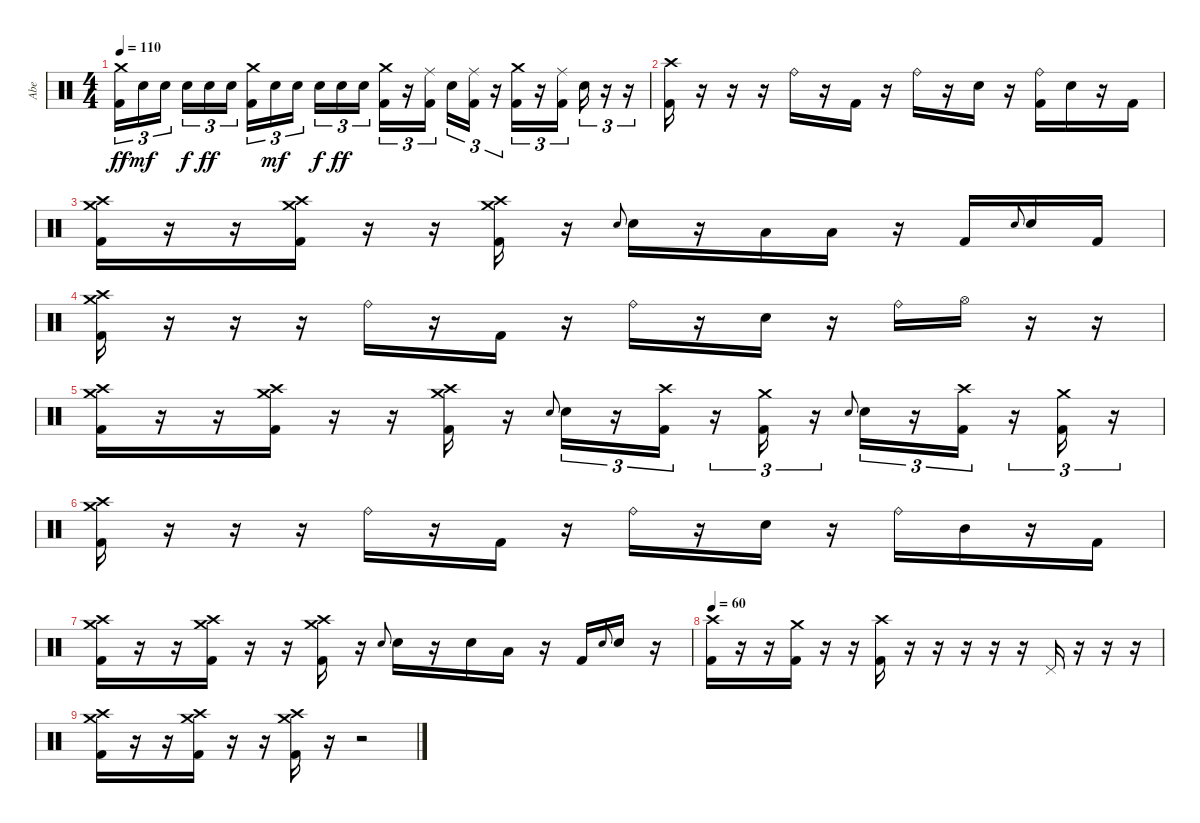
\track ("Abe" "Abe") {instrument percussion}
\staff {score}
\articulation defaults
\ts (4 4)
\tempo 110
\clef neutral
\ks c
("Crash medium (hit)" "Kick (hit) 2").16{tu (3 2) dy ff} "Electric Snare (hit)".16{tu (3 2) dy mf} "Electric Snare (hit)".16{tu (3 2) beam splitsecondary} "Electric Snare (hit)".16{tu (3 2) dy f} "Electric Snare (hit)".16{tu (3 2) dy ff} "Electric Snare (hit)".16{tu (3 2)} ("Crash medium (hit)" "Kick (hit) 2").16{tu (3 2)} "Electric Snare (hit)".16{tu (3 2) dy mf} "Electric Snare (hit)".16{tu (3 2) beam splitsecondary} "Electric Snare (hit)".16{tu (3 2) dy f} "Electric Snare (hit)".16{tu (3 2) dy ff} "Electric Snare (hit)".16{tu (3 2)} ("Crash medium (hit)" "Kick (hit) 2").16{tu (3 2)} r.16{tu (3 2)} ("Ride (middle)" "Kick (hit) 2").16{tu (3 2) beam splitsecondary} "Electric Snare (hit)".16{tu (3 2)} ("Ride (middle)" "Kick (hit) 2").16{tu (3 2)} r.16{tu (3 2)} ("Crash medium (hit)" "Kick (hit) 2").16{tu (3 2)} r.16{tu (3 2)} ("Ride (middle)" "Kick (hit) 2").16{tu (3 2)} "Electric Snare (hit)".16{tu (3 2)} r.16{tu (3 2)} r.16{tu (3 2)} |
("Crash high (hit)" "Kick (hit) 2").16 r.16 r.16 r.16 "Ride (bell)".16 r.16 "Kick (hit) 2".16 r.16 "Ride (bell)".16 r.16 "Electric Snare (hit)".16 r.16 ("Ride (bell)" "Kick (hit) 2").16 "Electric Snare (hit)".16 r.16 "Kick (hit) 2".16 |
("Crash medium (hit)" "Crash high (hit)" "Kick (hit) 2").16 r.16 r.16 ("Crash medium (hit)" "Crash high (hit)" "Kick (hit) 2").16 r.16 r.16 ("Crash medium (hit)" "Crash high (hit)" "Kick (hit) 2").16 r.16 "Electric Snare (hit)".8{gr onbeat} "Electric Snare (hit)".16 r.16 "Low Tom (hit)".16 "Low Tom (hit)".16 r.16 "Kick (hit) 2".16 "Electric Snare (hit)".8{gr onbeat} "Electric Snare (hit)".16 "Kick (hit) 2".16 |
("Crash medium (hit)" "Crash high (hit)" "Kick (hit) 2").16 r.16 r.16 r.16 "Ride (bell)".16 r.16 "Kick (hit) 2".16 r.16 "Ride (bell)".16 r.16 "Electric Snare (hit)".16 r.16 "Ride (bell)".16 "Hi-Hat (open)".16 r.16 r.16 |
("Crash medium (hit)" "Crash high (hit)" "Kick (hit) 2").16 r.16 r.16 ("Crash medium (hit)" "Crash high (hit)" "Kick (hit) 2").16 r.16 r.16 ("Crash medium (hit)" "Crash high (hit)" "Kick (hit) 2").16 r.16 "Electric Snare (hit)".8{gr onbeat} "Electric Snare (hit)".16{tu (3 2)} r.16{tu (3 2)} ("Crash high (hit)" "Kick (hit) 2").16{tu (3 2)} r.16{tu (3 2)} ("Crash medium (hit)" "Kick (hit) 2").16{tu (3 2)} r.16{tu (3 2)} "Electric Snare (hit)".8{gr onbeat} "Electric Snare (hit)".16{tu (3 2)} r.16{tu (3 2)} ("Crash high (hit)" "Kick (hit) 2").16{tu (3 2)} r.16{tu (3 2)} ("Crash medium (hit)" "Kick (hit) 2").16{tu (3 2)} r.16{tu (3 2)} |
("Crash medium (hit)" "Crash high (hit)" "Kick (hit) 2").16 r.16 r.16 r.16 "Ride (bell)".16 r.16 "Kick (hit) 2".16 r.16 "Ride (bell)".16 r.16 "Electric Snare (hit)".16 r.16 "Ride (bell)".16 "Mid Tom (hit)".16 r.16 "Kick (hit) 2".16 |
("Crash medium (hit)" "Crash high (hit)" "Kick (hit) 2").16 r.16 r.16 ("Crash medium (hit)" "Crash high (hit)" "Kick (hit) 2").16 r.16 r.16 ("Crash medium (hit)" "Crash high (hit)" "Kick (hit) 2").16 r.16 "Electric Snare (hit)".8{gr onbeat} "Electric Snare (hit)".16 r.16 "Electric Snare (hit)".16 "Low Tom (hit)".16 r.16 "Kick (hit) 2".16 "Electric Snare (hit)".8{gr onbeat} "Electric Snare (hit)".16 r.16 |
\tempo 60
("Crash high (hit)" "Kick (hit) 2").16 r.16 r.16 ("Crash medium (hit)" "Kick (hit) 2").16 r.16 r.16 ("Crash high (hit)" "Kick (hit) 2").16 r.16 r.16 r.16 r.16 r.16 "Pedal Hi-Hat (hit)".16 r.16 r.16 r.16 |
("Crash medium (hit)" "Crash high (hit)" "Kick (hit) 2").16 r.16 r.16 ("Crash medium (hit)" "Crash high (hit)" "Kick (hit) 2").16 r.16 r.16 ("Crash medium (hit)" "Crash high (hit)" "Kick (hit) 2").16 r.16 r.2
